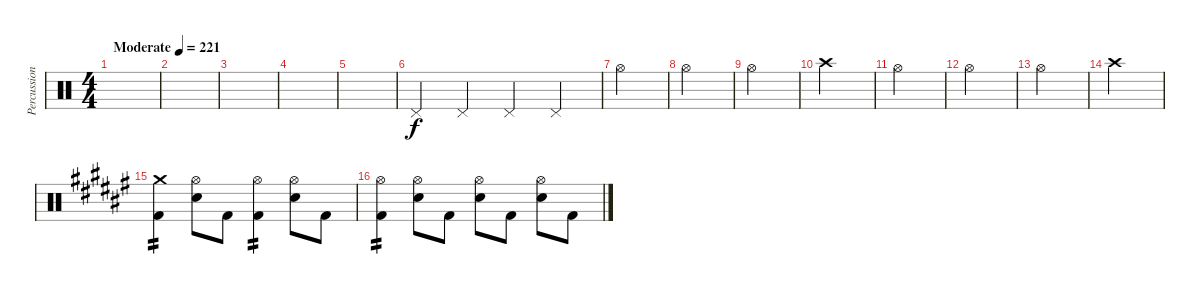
\track ("Percussions" "Percussion") {instrument percussion}
\staff {score}
\articulation defaults
\ts (4 4)
\tempo (221 "Moderate")
\clef neutral
\ks c
|
|
|
|
|
"Pedal Hi-Hat (hit)".4 "Pedal Hi-Hat (hit)".4 "Pedal Hi-Hat (hit)".4 "Pedal Hi-Hat (hit)".4 |
"Hi-Hat (open)".4 |
"Hi-Hat (open)".4 |
"Hi-Hat (open)".4 |
"Crash high (hit)".4 |
"Hi-Hat (open)".4 |
"Hi-Hat (open)".4 |
"Hi-Hat (open)".4 |
"Crash high (hit)".4 |
\ks d#minor
("Crash medium (hit)" "Kick (hit) 2").4{tp 2} ("Hi-Hat (open)" "Electric Snare (hit)").8 "Kick (hit) 2".8 ("Hi-Hat (open)" "Kick (hit) 2").4{tp 2} ("Hi-Hat (open)" "Electric Snare (hit)").8 "Kick (hit) 2".8 |
("Hi-Hat (open)" "Kick (hit) 2").4{tp 2} ("Hi-Hat (open)" "Electric Snare (hit)").8 "Kick (hit) 2".8 ("Hi-Hat (open)" "Electric Snare (hit)").8 "Kick (hit) 2".8 ("Hi-Hat (open)" "Electric Snare (hit)").8 "Kick (hit) 2".8
